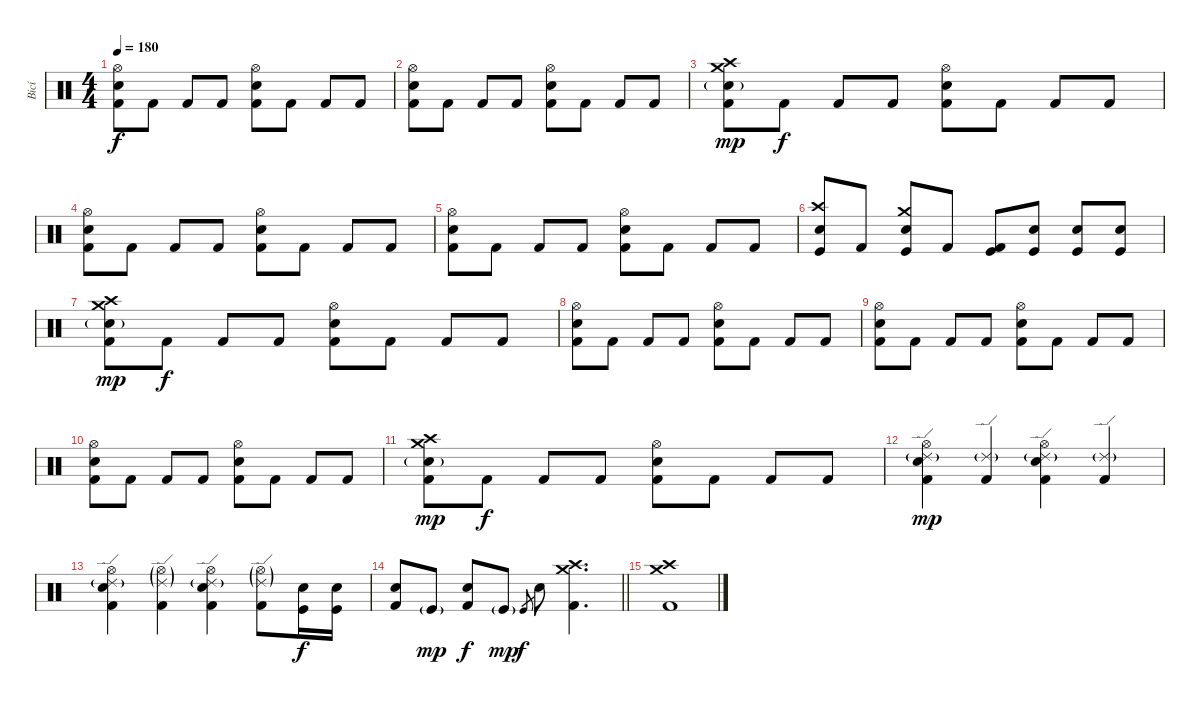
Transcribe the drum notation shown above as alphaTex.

\track ("Bicí" "Bicí") {instrument percussion}
\staff {score}
\articulation defaults
\ts (4 4)
\tempo 180
\clef neutral
\ks c
("Hi-Hat (open)" "Electric Snare (hit)" "Kick (hit) 2").8{dy f} "Kick (hit) 2".8 "Kick (hit) 2".8 "Kick (hit) 2".8 ("Hi-Hat (open)" "Electric Snare (hit)" "Kick (hit) 2").8 "Kick (hit) 2".8 "Kick (hit) 2".8 "Kick (hit) 2".8 |
("Hi-Hat (open)" "Electric Snare (hit)" "Kick (hit) 2").8 "Kick (hit) 2".8 "Kick (hit) 2".8 "Kick (hit) 2".8 ("Hi-Hat (open)" "Electric Snare (hit)" "Kick (hit) 2").8 "Kick (hit) 2".8 "Kick (hit) 2".8 "Kick (hit) 2".8 |
("Crash high (hit)" "Crash medium (hit)" "Electric Snare (hit)"{g} "Kick (hit) 2").8{dy mp} "Kick (hit) 2".8{dy f} "Kick (hit) 2".8 "Kick (hit) 2".8 ("Hi-Hat (open)" "Electric Snare (hit)" "Kick (hit) 2").8 "Kick (hit) 2".8 "Kick (hit) 2".8 "Kick (hit) 2".8 |
("Hi-Hat (open)" "Electric Snare (hit)" "Kick (hit) 2").8 "Kick (hit) 2".8 "Kick (hit) 2".8 "Kick (hit) 2".8 ("Hi-Hat (open)" "Electric Snare (hit)" "Kick (hit) 2").8 "Kick (hit) 2".8 "Kick (hit) 2".8 "Kick (hit) 2".8 |
("Hi-Hat (open)" "Electric Snare (hit)" "Kick (hit) 2").8 "Kick (hit) 2".8 "Kick (hit) 2".8 "Kick (hit) 2".8 ("Hi-Hat (open)" "Electric Snare (hit)" "Kick (hit) 2").8 "Kick (hit) 2".8 "Kick (hit) 2".8 "Kick (hit) 2".8 |
("Crash high (hit)" "Kick (hit)" "Electric Snare (hit)").8 "Kick (hit) 2".8 ("Crash medium (hit)" "Kick (hit)" "Electric Snare (hit)").8 "Kick (hit) 2".8 ("Kick (hit)" "Kick (hit) 2").8 ("Kick (hit)" "Electric Snare (hit)").8 ("Kick (hit)" "Electric Snare (hit)").8 ("Kick (hit)" "Electric Snare (hit)").8 |
("Crash high (hit)" "Crash medium (hit)" "Electric Snare (hit)"{g} "Kick (hit) 2").8{dy mp} "Kick (hit) 2".8{dy f} "Kick (hit) 2".8 "Kick (hit) 2".8 ("Hi-Hat (open)" "Electric Snare (hit)" "Kick (hit) 2").8 "Kick (hit) 2".8 "Kick (hit) 2".8 "Kick (hit) 2".8 |
("Hi-Hat (open)" "Electric Snare (hit)" "Kick (hit) 2").8 "Kick (hit) 2".8 "Kick (hit) 2".8 "Kick (hit) 2".8 ("Hi-Hat (open)" "Electric Snare (hit)" "Kick (hit) 2").8 "Kick (hit) 2".8 "Kick (hit) 2".8 "Kick (hit) 2".8 |
("Hi-Hat (open)" "Electric Snare (hit)" "Kick (hit) 2").8 "Kick (hit) 2".8 "Kick (hit) 2".8 "Kick (hit) 2".8 ("Hi-Hat (open)" "Electric Snare (hit)" "Kick (hit) 2").8 "Kick (hit) 2".8 "Kick (hit) 2".8 "Kick (hit) 2".8 |
("Hi-Hat (open)" "Electric Snare (hit)" "Kick (hit) 2").8 "Kick (hit) 2".8 "Kick (hit) 2".8 "Kick (hit) 2".8 ("Hi-Hat (open)" "Electric Snare (hit)" "Kick (hit) 2").8 "Kick (hit) 2".8 "Kick (hit) 2".8 "Kick (hit) 2".8 |
("Crash high (hit)" "Crash medium (hit)" "Electric Snare (hit)"{g} "Kick (hit) 2").8{dy mp} "Kick (hit) 2".8{dy f} "Kick (hit) 2".8 "Kick (hit) 2".8 ("Hi-Hat (open)" "Electric Snare (hit)" "Kick (hit) 2").8 "Kick (hit) 2".8 "Kick (hit) 2".8 "Kick (hit) 2".8 |
("Hi-Hat (open)" "Ride (edge) 2"{g} "Electric Snare (hit)" "Kick (hit) 2").4{dy mp} ("Ride (edge) 2"{g} "Kick (hit) 2").4 ("Hi-Hat (open)" "Ride (edge) 2"{g} "Electric Snare (hit)" "Kick (hit) 2").4 ("Ride (edge) 2"{g} "Kick (hit) 2").4 |
("Hi-Hat (open)" "Ride (edge) 2"{g} "Electric Snare (hit)" "Kick (hit) 2").4 ("Hi-Hat (open)"{g} "Ride (edge) 2"{g} "Kick (hit) 2").4 ("Hi-Hat (open)" "Ride (edge) 2"{g} "Electric Snare (hit)" "Kick (hit) 2").4 ("Hi-Hat (open)"{g} "Ride (edge) 2"{g} "Kick (hit) 2").8 ("Kick (hit)" "Electric Snare (hit)").16{dy f} ("Kick (hit)" "Electric Snare (hit)").16 |
\barLineRight lightlight
("Kick (hit) 2" "Electric Snare (hit)").8 "Kick (hit)"{g}.8{dy mp} ("Kick (hit) 2" "Electric Snare (hit)").8{dy f} "Kick (hit)"{g}.8{dy mp} "Kick (hit)".8{gr dy f} "Electric Snare (hit)".8 ("Crash medium (hit)" "Crash high (hit)" "Kick (hit) 2").4{d} |
("Crash high (hit)" "Crash medium (hit)" "Kick (hit) 2").1
